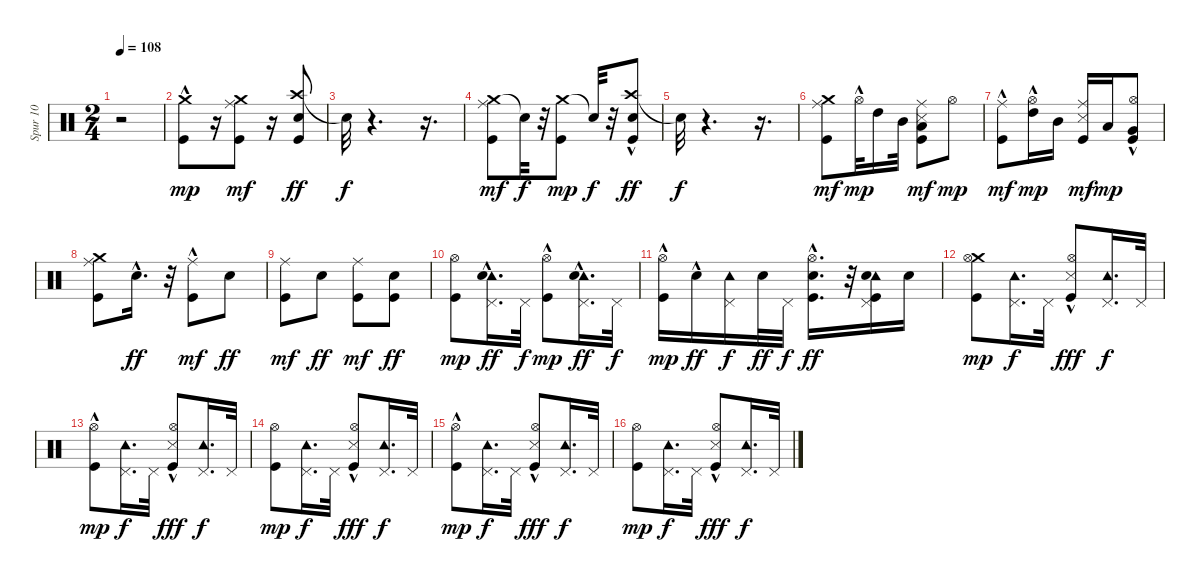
\track ("Spur 10" "Spur 10") {instrument percussion}
\staff {score}
\articulation defaults
\ts (2 4)
\tempo 108
\clef neutral
\ks c
r.2{dy mp} |
("Crash medium (hit)"{hac} "Kick (hit)").8 r.16 ("Crash medium (hit)" "Ride (middle)" "Kick (hit)").8{dy mf} r.16 ("Crash high (hit)" "Electric Snare (hit)" "Kick (hit)").8{dy ff} |
"Snare (hit)"{t}.32{dy f} r.4{d} r.16{d} |
("Crash medium (hit)" "Ride (middle)" "Kick (hit)").8{dy mf} "Snare (hit)"{t}.32{dy f} r.32 ("Crash medium (hit)" "Kick (hit)").8{dy mp} "Snare (hit)"{t}.32{dy f} r.32 ("Crash high (hit)" "Kick (hit)"{hac} "Electric Snare (hit)"{hac}).8{dy ff} |
"Snare (hit)"{t}.32{dy f} r.4{d} r.16{d} |
("Crash medium (hit)" "Ride (middle)" "Kick (hit)").8{dy mf} "Hi-Hat (open)"{hac}.32{dy mp} "High Tom (hit)".16 "Mid Tom (hit)".32 ("Low Tom (hit)" "Snare (side stick) 3" "Ride (middle)" "Kick (hit)").8{dy mf} "Hi-Hat (open)".8{dy mp} |
("Ride (middle)" "Kick (hit)"{hac}).8{dy mf} ("High Tom (hit)"{hac} "Hi-Hat (open)").16{dy mp} "Mid Tom (hit)".16 ("Snare (side stick) 3" "Ride (middle)" "Kick (hit)").16{dy mf} "Low Tom (hit)".16{dy mp} ("Very Low Tom (hit)"{hac} "Hi-Hat (open)" "Kick (hit)").8 |
("Ride (middle)" "Crash medium (hit)" "Kick (hit)").8 "Electric Snare (hit)"{hac}.16{d dy ff} r.32 ("Ride (middle)" "Kick (hit)"{hac}).8{dy mf} "Electric Snare (hit)".8{dy ff} |
("Ride (middle)" "Kick (hit)").8{dy mf} "Electric Snare (hit)".8{dy ff} ("Ride (middle)" "Kick (hit)").8{dy mf} ("Electric Snare (hit)" "Kick (hit)").8{dy ff} |
("Hi-Hat (open)" "Kick (hit)").8{dy mp} ("Tambourine (hit)"{hac} "Pedal Hi-Hat (hit)" "Electric Snare (hit)").16{d dy ff} "Pedal Hi-Hat (hit)".32{dy f} ("Hi-Hat (open)"{hac} "Kick (hit)").8{dy mp} ("Tambourine (hit)"{hac} "Pedal Hi-Hat (hit)" "Electric Snare (hit)").16{d dy ff} "Pedal Hi-Hat (hit)".32{dy f} |
("Hi-Hat (open)"{hac} "Kick (hit)").16{dy mp} "Electric Snare (hit)"{hac}.16{dy ff} ("Tambourine (hit)" "Pedal Hi-Hat (hit)").16{dy f} "Electric Snare (hit)".32{dy ff} "Pedal Hi-Hat (hit)".32{dy f} ("Hi-Hat (open)"{hac} "Electric Snare (hit)"{hac} "Kick (hit)").16{d dy ff} r.32 ("Tambourine (hit)" "Pedal Hi-Hat (hit)" "Electric Snare (hit)" "Kick (hit)").16 "Electric Snare (hit)".16 |
("Crash medium (hit)" "Hi-Hat (open)" "Kick (hit)").8{dy mp} ("Tambourine (hit)" "Pedal Hi-Hat (hit)").16{d dy f} "Pedal Hi-Hat (hit)".32 ("Hi-Hat (open)"{hac} "Kick (hit)" "Snare (side stick) 3"{hac}).8{dy fff} ("Tambourine (hit)" "Pedal Hi-Hat (hit)").16{d dy f} "Pedal Hi-Hat (hit)".32 |
("Hi-Hat (open)"{hac} "Kick (hit)").8{dy mp} ("Tambourine (hit)" "Pedal Hi-Hat (hit)").16{d dy f} "Pedal Hi-Hat (hit)".32 ("Hi-Hat (open)" "Kick (hit)" "Snare (side stick) 3"{hac}).8{dy fff} ("Tambourine (hit)" "Pedal Hi-Hat (hit)").16{d dy f} "Pedal Hi-Hat (hit)".32 |
("Hi-Hat (open)" "Kick (hit)").8{dy mp} ("Tambourine (hit)" "Pedal Hi-Hat (hit)").16{d dy f} "Pedal Hi-Hat (hit)".32 ("Hi-Hat (open)"{hac} "Kick (hit)" "Snare (side stick) 3"{hac}).8{dy fff} ("Tambourine (hit)" "Pedal Hi-Hat (hit)").16{d dy f} "Pedal Hi-Hat (hit)".32 |
("Hi-Hat (open)"{hac} "Kick (hit)").8{dy mp} ("Tambourine (hit)" "Pedal Hi-Hat (hit)").16{d dy f} "Pedal Hi-Hat (hit)".32 ("Hi-Hat (open)" "Kick (hit)" "Snare (side stick) 3"{hac}).8{dy fff} ("Tambourine (hit)" "Pedal Hi-Hat (hit)").16{d dy f} "Pedal Hi-Hat (hit)".32 |
("Hi-Hat (open)" "Kick (hit)").8{dy mp} ("Tambourine (hit)" "Pedal Hi-Hat (hit)").16{d dy f} "Pedal Hi-Hat (hit)".32 ("Hi-Hat (open)"{hac} "Kick (hit)" "Snare (side stick) 3"{hac}).8{dy fff} ("Tambourine (hit)" "Pedal Hi-Hat (hit)").16{d dy f} "Pedal Hi-Hat (hit)".32
